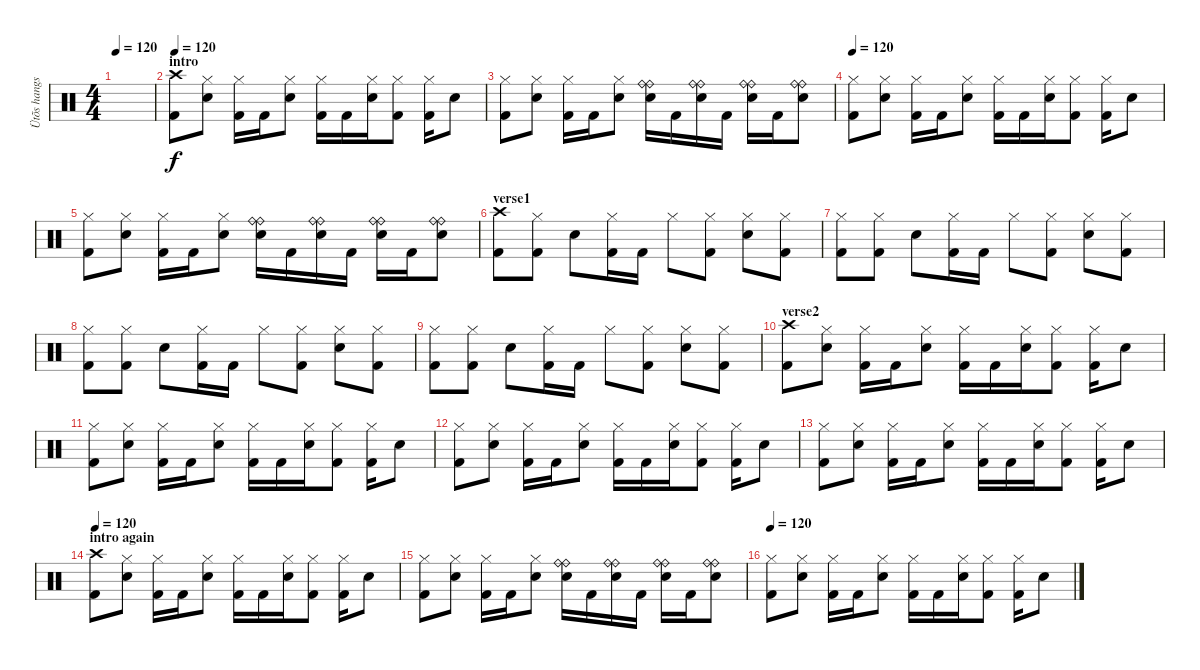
\track ("Ütõs hangszer" "Ütõs hangs") {instrument percussion}
\staff {score}
\articulation defaults
\ts (4 4)
\tempo 120
\tempo 180
\tempo 120
\clef neutral
\ks c
|
\section ("" "intro")
\tempo 120
("Crash high (hit)" "Kick (hit) 2").8 ("Hi-Hat (closed)" "Snare (hit) 2").8 ("Hi-Hat (closed)" "Kick (hit) 2").16 "Kick (hit) 2".16 ("Hi-Hat (closed)" "Snare (hit) 2").8 ("Hi-Hat (closed)" "Kick (hit) 2").16 "Kick (hit) 2".16 ("Hi-Hat (closed)" "Snare (hit) 2").16 ("Hi-Hat (closed)" "Kick (hit) 2").8 ("Hi-Hat (closed)" "Kick (hit) 2").16 "Snare (hit) 2".8 |
("Hi-Hat (closed)" "Kick (hit) 2").8 ("Hi-Hat (closed)" "Snare (hit) 2").8 ("Hi-Hat (closed)" "Kick (hit) 2").16 "Kick (hit) 2".16 ("Hi-Hat (closed)" "Snare (hit) 2").8 ("Ride (bell)" "Ride (bell)" "Snare (hit) 2").16 "Kick (hit) 2".16 ("Ride (bell)" "Ride (bell)" "Snare (hit) 2").16 "Kick (hit) 2".16 ("Ride (bell)" "Ride (bell)" "Snare (hit) 2").16 "Kick (hit) 2".16 ("Ride (bell)" "Ride (bell)" "Snare (hit) 2").8 |
\tempo 120
("Hi-Hat (closed)" "Kick (hit) 2").8 ("Hi-Hat (closed)" "Snare (hit) 2").8 ("Hi-Hat (closed)" "Kick (hit) 2").16 "Kick (hit) 2".16 ("Hi-Hat (closed)" "Snare (hit) 2").8 ("Hi-Hat (closed)" "Kick (hit) 2").16 "Kick (hit) 2".16 ("Hi-Hat (closed)" "Snare (hit) 2").16 ("Hi-Hat (closed)" "Kick (hit) 2").8 ("Hi-Hat (closed)" "Kick (hit) 2").16 "Snare (hit) 2".8 |
("Hi-Hat (closed)" "Kick (hit) 2").8 ("Hi-Hat (closed)" "Snare (hit) 2").8 ("Hi-Hat (closed)" "Kick (hit) 2").16 "Kick (hit) 2".16 ("Hi-Hat (closed)" "Snare (hit) 2").8 ("Ride (bell)" "Ride (bell)" "Snare (hit) 2").16 "Kick (hit) 2".16 ("Ride (bell)" "Ride (bell)" "Snare (hit) 2").16 "Kick (hit) 2".16 ("Ride (bell)" "Ride (bell)" "Snare (hit) 2").16 "Kick (hit) 2".16 ("Ride (bell)" "Ride (bell)" "Snare (hit) 2").8 |
\section ("" "verse1")
("Crash high (hit)" "Kick (hit) 2").8 ("Hi-Hat (closed)" "Kick (hit) 2").8 "Snare (hit) 2".8 ("Hi-Hat (closed)" "Kick (hit) 2").16 "Kick (hit) 2".16 "Hi-Hat (closed)".8 ("Hi-Hat (closed)" "Kick (hit) 2").8 ("Hi-Hat (closed)" "Snare (hit) 2").8 ("Hi-Hat (closed)" "Kick (hit) 2").8 |
("Hi-Hat (closed)" "Kick (hit) 2").8 ("Hi-Hat (closed)" "Kick (hit) 2").8 "Snare (hit) 2".8 ("Hi-Hat (closed)" "Kick (hit) 2").16 "Kick (hit) 2".16 "Hi-Hat (closed)".8 ("Hi-Hat (closed)" "Kick (hit) 2").8 ("Hi-Hat (closed)" "Snare (hit) 2").8 ("Hi-Hat (closed)" "Kick (hit) 2").8 |
("Hi-Hat (closed)" "Kick (hit) 2").8 ("Hi-Hat (closed)" "Kick (hit) 2").8 "Snare (hit) 2".8 ("Hi-Hat (closed)" "Kick (hit) 2").16 "Kick (hit) 2".16 "Hi-Hat (closed)".8 ("Hi-Hat (closed)" "Kick (hit) 2").8 ("Hi-Hat (closed)" "Snare (hit) 2").8 ("Hi-Hat (closed)" "Kick (hit) 2").8 |
("Hi-Hat (closed)" "Kick (hit) 2").8 ("Hi-Hat (closed)" "Kick (hit) 2").8 "Snare (hit) 2".8 ("Hi-Hat (closed)" "Kick (hit) 2").16 "Kick (hit) 2".16 "Hi-Hat (closed)".8 ("Hi-Hat (closed)" "Kick (hit) 2").8 ("Hi-Hat (closed)" "Snare (hit) 2").8 ("Hi-Hat (closed)" "Kick (hit) 2").8 |
\section ("" "verse2")
("Crash high (hit)" "Kick (hit) 2").8 ("Hi-Hat (closed)" "Snare (hit) 2").8 ("Hi-Hat (closed)" "Kick (hit) 2").16 "Kick (hit) 2".16 ("Hi-Hat (closed)" "Snare (hit) 2").8 ("Hi-Hat (closed)" "Kick (hit) 2").16 "Kick (hit) 2".16 ("Hi-Hat (closed)" "Snare (hit) 2").16 ("Hi-Hat (closed)" "Kick (hit) 2").8 ("Hi-Hat (closed)" "Kick (hit) 2").16 "Snare (hit) 2".8 |
("Hi-Hat (closed)" "Kick (hit) 2").8 ("Hi-Hat (closed)" "Snare (hit) 2").8 ("Hi-Hat (closed)" "Kick (hit) 2").16 "Kick (hit) 2".16 ("Hi-Hat (closed)" "Snare (hit) 2").8 ("Hi-Hat (closed)" "Kick (hit) 2").16 "Kick (hit) 2".16 ("Hi-Hat (closed)" "Snare (hit) 2").16 ("Hi-Hat (closed)" "Kick (hit) 2").8 ("Hi-Hat (closed)" "Kick (hit) 2").16 "Snare (hit) 2".8 |
("Hi-Hat (closed)" "Kick (hit) 2").8 ("Hi-Hat (closed)" "Snare (hit) 2").8 ("Hi-Hat (closed)" "Kick (hit) 2").16 "Kick (hit) 2".16 ("Hi-Hat (closed)" "Snare (hit) 2").8 ("Hi-Hat (closed)" "Kick (hit) 2").16 "Kick (hit) 2".16 ("Hi-Hat (closed)" "Snare (hit) 2").16 ("Hi-Hat (closed)" "Kick (hit) 2").8 ("Hi-Hat (closed)" "Kick (hit) 2").16 "Snare (hit) 2".8 |
("Hi-Hat (closed)" "Kick (hit) 2").8 ("Hi-Hat (closed)" "Snare (hit) 2").8 ("Hi-Hat (closed)" "Kick (hit) 2").16 "Kick (hit) 2".16 ("Hi-Hat (closed)" "Snare (hit) 2").8 ("Hi-Hat (closed)" "Kick (hit) 2").16 "Kick (hit) 2".16 ("Hi-Hat (closed)" "Snare (hit) 2").16 ("Hi-Hat (closed)" "Kick (hit) 2").8 ("Hi-Hat (closed)" "Kick (hit) 2").16 "Snare (hit) 2".8 |
\section ("" "intro again")
\tempo 120
("Crash high (hit)" "Kick (hit) 2").8 ("Hi-Hat (closed)" "Snare (hit) 2").8 ("Hi-Hat (closed)" "Kick (hit) 2").16 "Kick (hit) 2".16 ("Hi-Hat (closed)" "Snare (hit) 2").8 ("Hi-Hat (closed)" "Kick (hit) 2").16 "Kick (hit) 2".16 ("Hi-Hat (closed)" "Snare (hit) 2").16 ("Hi-Hat (closed)" "Kick (hit) 2").8 ("Hi-Hat (closed)" "Kick (hit) 2").16 "Snare (hit) 2".8 |
("Hi-Hat (closed)" "Kick (hit) 2").8 ("Hi-Hat (closed)" "Snare (hit) 2").8 ("Hi-Hat (closed)" "Kick (hit) 2").16 "Kick (hit) 2".16 ("Hi-Hat (closed)" "Snare (hit) 2").8 ("Ride (bell)" "Ride (bell)" "Snare (hit) 2").16 "Kick (hit) 2".16 ("Ride (bell)" "Ride (bell)" "Snare (hit) 2").16 "Kick (hit) 2".16 ("Ride (bell)" "Ride (bell)" "Snare (hit) 2").16 "Kick (hit) 2".16 ("Ride (bell)" "Ride (bell)" "Snare (hit) 2").8 |
\tempo 120
("Hi-Hat (closed)" "Kick (hit) 2").8 ("Hi-Hat (closed)" "Snare (hit) 2").8 ("Hi-Hat (closed)" "Kick (hit) 2").16 "Kick (hit) 2".16 ("Hi-Hat (closed)" "Snare (hit) 2").8 ("Hi-Hat (closed)" "Kick (hit) 2").16 "Kick (hit) 2".16 ("Hi-Hat (closed)" "Snare (hit) 2").16 ("Hi-Hat (closed)" "Kick (hit) 2").8 ("Hi-Hat (closed)" "Kick (hit) 2").16 "Snare (hit) 2".8
